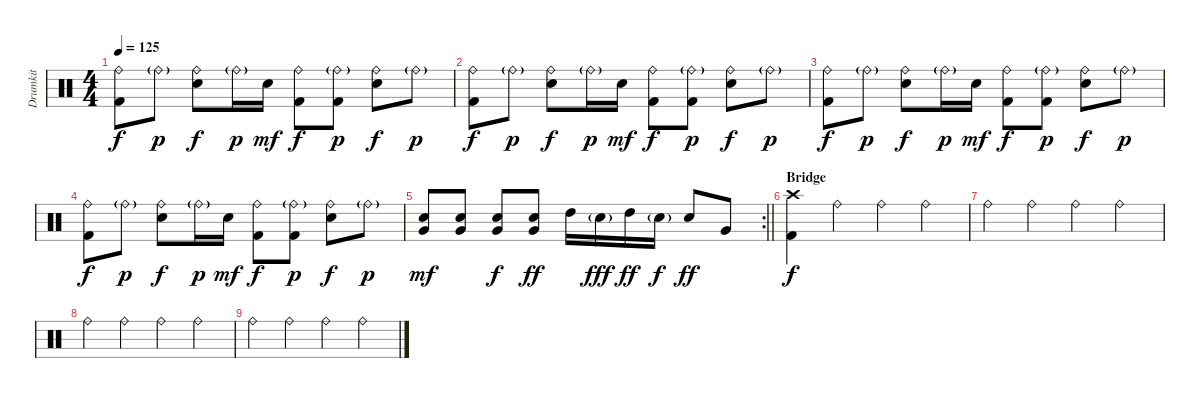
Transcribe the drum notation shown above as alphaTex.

\track ("Drumkit" "Drumkit") {instrument percussion}
\staff {score}
\articulation defaults
\ts (4 4)
\tempo 125
\clef neutral
\ks c
("Ride (bell)" "Kick (hit) 2").8{dy f} "Ride (bell)"{g}.8{dy p} ("Ride (bell)" "Snare (hit) 2").8{dy f} "Ride (bell)"{g}.16{dy p} "Snare (hit) 2".16{dy mf} ("Ride (bell)" "Kick (hit) 2").8{dy f} ("Ride (bell)"{g} "Kick (hit) 2").8{dy p} ("Ride (bell)" "Snare (hit) 2").8{dy f} "Ride (bell)"{g}.8{dy p} |
("Ride (bell)" "Kick (hit) 2").8{dy f} "Ride (bell)"{g}.8{dy p} ("Ride (bell)" "Snare (hit) 2").8{dy f} "Ride (bell)"{g}.16{dy p} "Snare (hit) 2".16{dy mf} ("Ride (bell)" "Kick (hit) 2").8{dy f} ("Ride (bell)"{g} "Kick (hit) 2").8{dy p} ("Ride (bell)" "Snare (hit) 2").8{dy f} "Ride (bell)"{g}.8{dy p} |
("Ride (bell)" "Kick (hit) 2").8{dy f} "Ride (bell)"{g}.8{dy p} ("Ride (bell)" "Snare (hit) 2").8{dy f} "Ride (bell)"{g}.16{dy p} "Snare (hit) 2".16{dy mf} ("Ride (bell)" "Kick (hit) 2").8{dy f} ("Ride (bell)"{g} "Kick (hit) 2").8{dy p} ("Ride (bell)" "Snare (hit) 2").8{dy f} "Ride (bell)"{g}.8{dy p} |
("Ride (bell)" "Kick (hit) 2").8{dy f} "Ride (bell)"{g}.8{dy p} ("Ride (bell)" "Snare (hit) 2").8{dy f} "Ride (bell)"{g}.16{dy p} "Snare (hit) 2".16{dy mf} ("Ride (bell)" "Kick (hit) 2").8{dy f} ("Ride (bell)"{g} "Kick (hit) 2").8{dy p} ("Ride (bell)" "Snare (hit) 2").8{dy f} "Ride (bell)"{g}.8{dy p} |
\rc 2
\barLineRight lightlight
("Very Low Tom (hit)" "Snare (hit) 2").8{dy mf} ("Very Low Tom (hit)" "Snare (hit) 2").8 ("Very Low Tom (hit)" "Snare (hit) 2").8{dy f} ("Very Low Tom (hit)" "Snare (hit) 2").8{dy ff} "High Tom (hit)".16 "Snare (hit) 2"{g}.16{dy fff} "High Tom (hit)".16{dy ff} "Snare (hit) 2"{g}.16{dy f} "Snare (hit) 2".8{dy ff} "Very Low Tom (hit)".8 |
\section ("" "Bridge")
("Crash high (hit)" "Kick (hit) 2").4{dy f} "Ride (bell)".4 "Ride (bell)".4 "Ride (bell)".4 |
"Ride (bell)".4 "Ride (bell)".4 "Ride (bell)".4 "Ride (bell)".4 |
"Ride (bell)".4 "Ride (bell)".4 "Ride (bell)".4 "Ride (bell)".4 |
"Ride (bell)".4 "Ride (bell)".4 "Ride (bell)".4 "Ride (bell)".4
